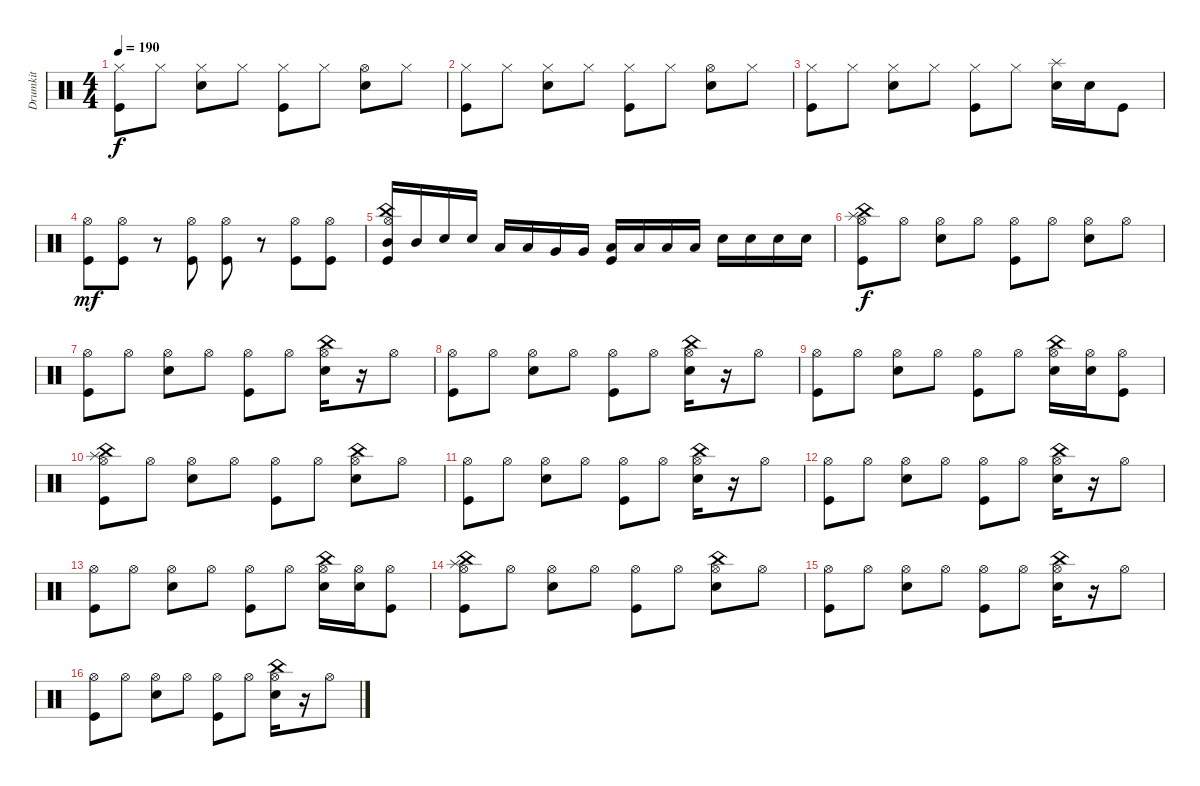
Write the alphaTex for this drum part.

\track ("Drumkit" "Drumkit") {instrument percussion}
\staff {score}
\articulation defaults
\ts (4 4)
\tempo 190
\clef neutral
\ks c
("Kick (hit)" "Hi-Hat (closed)").8{dy f} "Hi-Hat (closed)".8 ("Snare (hit) 2" "Hi-Hat (closed)").8 "Hi-Hat (closed)".8 ("Hi-Hat (closed)" "Kick (hit)").8 "Hi-Hat (closed)".8 ("Hi-Hat (open)" "Snare (hit) 2").8 "Hi-Hat (closed)".8 |
("Kick (hit)" "Hi-Hat (closed)").8 "Hi-Hat (closed)".8 ("Snare (hit) 2" "Hi-Hat (closed)").8 "Hi-Hat (closed)".8 ("Hi-Hat (closed)" "Kick (hit)").8 "Hi-Hat (closed)".8 ("Hi-Hat (open)" "Snare (hit) 2").8 "Hi-Hat (closed)".8 |
("Kick (hit)" "Hi-Hat (closed)").8 "Hi-Hat (closed)".8 ("Snare (hit) 2" "Hi-Hat (closed)").8 "Hi-Hat (closed)".8 ("Hi-Hat (closed)" "Kick (hit)").8 "Hi-Hat (closed)".8 ("Snare (hit) 2" "Splash (hit)").16 "Snare (hit) 2".16 "Kick (hit)".8 |
("Kick (hit)" "Hi-Hat (open)").8{dy mf} ("Kick (hit)" "Hi-Hat (open)").8 r.8 ("Kick (hit)" "Hi-Hat (open)").8 ("Kick (hit)" "Hi-Hat (open)").8 r.8 ("Kick (hit)" "Hi-Hat (open)").8 ("Kick (hit)" "Hi-Hat (open)").8 |
("Kick (hit)" "China (hit)" "Hi-Hat (open)" "Mid Tom (hit)").16 "Mid Tom (hit)".16 "Snare (hit) 2".16 "Snare (hit) 2".16 "Low Tom (hit)".16 "Low Tom (hit)".16 "Very Low Tom (hit)".16 "Very Low Tom (hit)".16 ("Low Floor Tom (hit)" "Kick (hit)").16 "Low Floor Tom (hit)".16 "Low Floor Tom (hit)".16 "Low Floor Tom (hit)".16 "Snare (hit) 2".16 "Snare (hit) 2".16 "Snare (hit) 2".16 "Snare (hit) 2".16 |
("Kick (hit)" "Hi-Hat (open)" "Splash (hit)" "China (hit)").8{dy f} "Hi-Hat (open)".8 ("Snare (hit) 2" "Hi-Hat (open)").8 "Hi-Hat (open)".8 ("Kick (hit)" "Hi-Hat (open)").8 "Hi-Hat (open)".8 ("Snare (hit) 2" "Hi-Hat (open)").8 "Hi-Hat (open)".8 |
("Kick (hit)" "Hi-Hat (open)").8 "Hi-Hat (open)".8 ("Snare (hit) 2" "Hi-Hat (open)").8 "Hi-Hat (open)".8 ("Kick (hit)" "Hi-Hat (open)").8 "Hi-Hat (open)".8 ("Snare (hit) 2" "Hi-Hat (open)" "China (hit)").16 r.16 "Hi-Hat (open)".8 |
("Kick (hit)" "Hi-Hat (open)").8 "Hi-Hat (open)".8 ("Snare (hit) 2" "Hi-Hat (open)").8 "Hi-Hat (open)".8 ("Kick (hit)" "Hi-Hat (open)").8 "Hi-Hat (open)".8 ("Snare (hit) 2" "Hi-Hat (open)" "China (hit)").16 r.16 "Hi-Hat (open)".8 |
("Kick (hit)" "Hi-Hat (open)").8 "Hi-Hat (open)".8 ("Snare (hit) 2" "Hi-Hat (open)").8 "Hi-Hat (open)".8 ("Kick (hit)" "Hi-Hat (open)").8 "Hi-Hat (open)".8 ("Snare (hit) 2" "Hi-Hat (open)" "China (hit)").16 ("Snare (hit) 2" "Hi-Hat (open)").16 ("Kick (hit)" "Hi-Hat (open)").8 |
("Kick (hit)" "Hi-Hat (open)" "Splash (hit)" "China (hit)").8 "Hi-Hat (open)".8 ("Snare (hit) 2" "Hi-Hat (open)").8 "Hi-Hat (open)".8 ("Kick (hit)" "Hi-Hat (open)").8 "Hi-Hat (open)".8 ("Snare (hit) 2" "Hi-Hat (open)" "China (hit)").8 "Hi-Hat (open)".8 |
("Kick (hit)" "Hi-Hat (open)").8 "Hi-Hat (open)".8 ("Snare (hit) 2" "Hi-Hat (open)").8 "Hi-Hat (open)".8 ("Kick (hit)" "Hi-Hat (open)").8 "Hi-Hat (open)".8 ("Snare (hit) 2" "Hi-Hat (open)" "China (hit)").16 r.16 "Hi-Hat (open)".8 |
("Kick (hit)" "Hi-Hat (open)").8 "Hi-Hat (open)".8 ("Snare (hit) 2" "Hi-Hat (open)").8 "Hi-Hat (open)".8 ("Kick (hit)" "Hi-Hat (open)").8 "Hi-Hat (open)".8 ("Snare (hit) 2" "Hi-Hat (open)" "China (hit)").16 r.16 "Hi-Hat (open)".8 |
("Kick (hit)" "Hi-Hat (open)").8 "Hi-Hat (open)".8 ("Snare (hit) 2" "Hi-Hat (open)").8 "Hi-Hat (open)".8 ("Kick (hit)" "Hi-Hat (open)").8 "Hi-Hat (open)".8 ("Snare (hit) 2" "Hi-Hat (open)" "China (hit)").16 ("Snare (hit) 2" "Hi-Hat (open)").16 ("Kick (hit)" "Hi-Hat (open)").8 |
("Kick (hit)" "Hi-Hat (open)" "Splash (hit)" "China (hit)").8 "Hi-Hat (open)".8 ("Snare (hit) 2" "Hi-Hat (open)").8 "Hi-Hat (open)".8 ("Kick (hit)" "Hi-Hat (open)").8 "Hi-Hat (open)".8 ("Snare (hit) 2" "Hi-Hat (open)" "China (hit)").8 "Hi-Hat (open)".8 |
("Kick (hit)" "Hi-Hat (open)").8 "Hi-Hat (open)".8 ("Snare (hit) 2" "Hi-Hat (open)").8 "Hi-Hat (open)".8 ("Kick (hit)" "Hi-Hat (open)").8 "Hi-Hat (open)".8 ("Snare (hit) 2" "Hi-Hat (open)" "China (hit)").16 r.16 "Hi-Hat (open)".8 |
("Kick (hit)" "Hi-Hat (open)").8 "Hi-Hat (open)".8 ("Snare (hit) 2" "Hi-Hat (open)").8 "Hi-Hat (open)".8 ("Kick (hit)" "Hi-Hat (open)").8 "Hi-Hat (open)".8 ("Snare (hit) 2" "Hi-Hat (open)" "China (hit)").16 r.16 "Hi-Hat (open)".8
